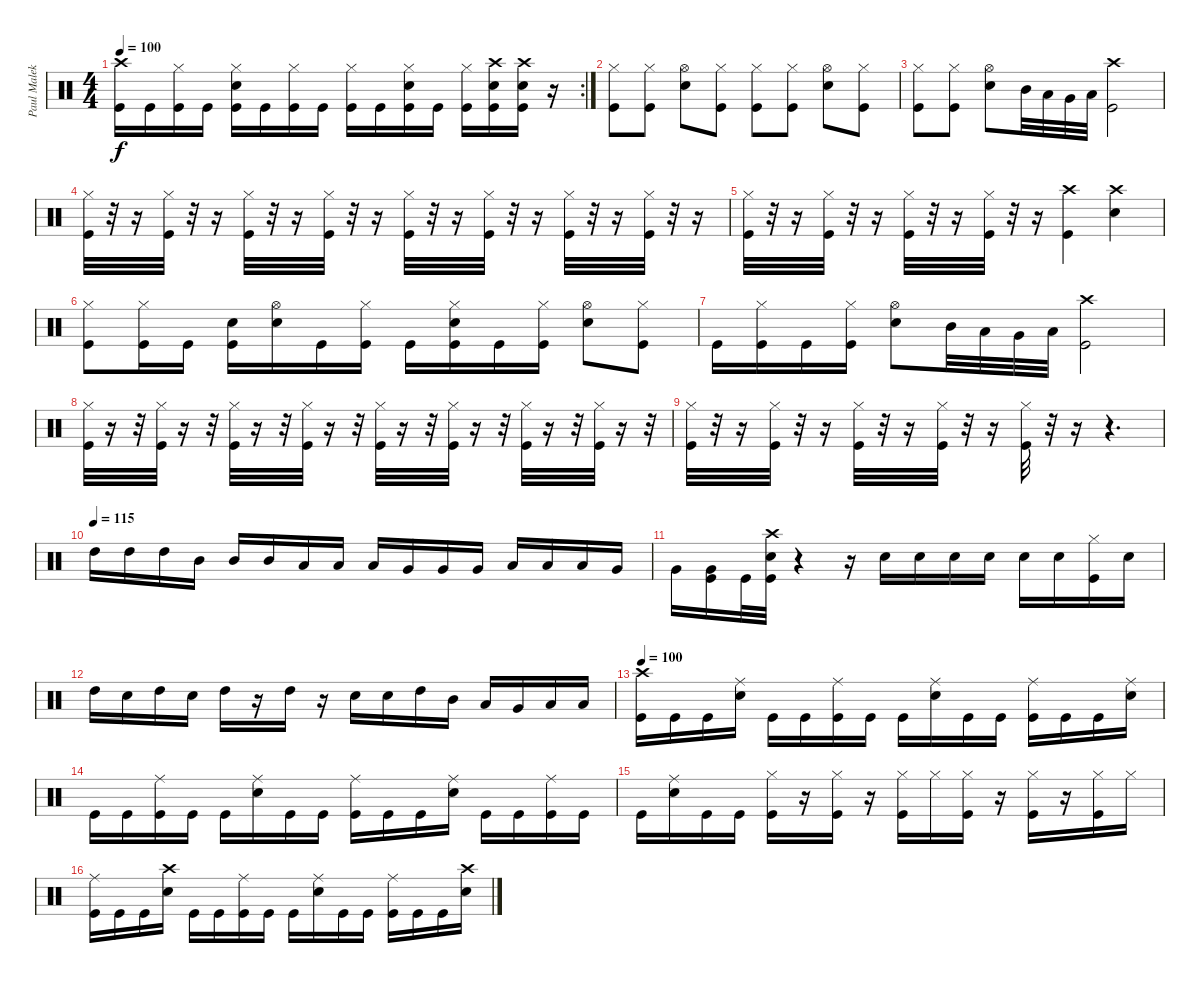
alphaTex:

\track ("Paul Malek" "Paul Malek") {instrument percussion}
\staff {score}
\articulation defaults
\rc 2
\ts (4 4)
\tempo 100
\clef neutral
\ks c
("Crash high (hit)" "Kick (hit)").16{dy f} "Kick (hit)".16 ("Hi-Hat (closed)" "Kick (hit)").16 "Kick (hit)".16 ("Hi-Hat (closed)" "Snare (hit) 2" "Kick (hit)").16 "Kick (hit)".16 ("Hi-Hat (closed)" "Kick (hit)").16 "Kick (hit)".16 ("Hi-Hat (closed)" "Kick (hit)").16 "Kick (hit)".16 ("Hi-Hat (closed)" "Snare (hit) 2" "Kick (hit)").16 "Kick (hit)".16 ("Hi-Hat (closed)" "Kick (hit)").16 ("Snare (hit) 2" "Crash high (hit)" "Kick (hit)").16 ("Snare (hit) 2" "Crash high (hit)" "Kick (hit)").16 r.16 |
("Hi-Hat (closed)" "Kick (hit)").8 ("Hi-Hat (closed)" "Kick (hit)").8 ("Hi-Hat (open)" "Snare (hit) 2").8 ("Hi-Hat (closed)" "Kick (hit)").8 ("Hi-Hat (closed)" "Kick (hit)").8 ("Hi-Hat (closed)" "Kick (hit)").8 ("Hi-Hat (open)" "Snare (hit) 2").8 ("Hi-Hat (closed)" "Kick (hit)").8 |
("Hi-Hat (closed)" "Kick (hit)").8 ("Hi-Hat (closed)" "Kick (hit)").8 ("Hi-Hat (open)" "Snare (hit) 2").8 "Mid Tom (hit)".32 "Low Tom (hit)".32 "Very Low Tom (hit)".32 "Low Floor Tom (hit)".32 ("Crash high (hit)" "Kick (hit)").2 |
("Hi-Hat (closed)" "Kick (hit)").32 r.32 r.16 ("Hi-Hat (closed)" "Kick (hit)").32 r.32 r.16 ("Hi-Hat (closed)" "Kick (hit)").32 r.32 r.16 ("Hi-Hat (closed)" "Kick (hit)").32 r.32 r.16 ("Hi-Hat (closed)" "Kick (hit)").32 r.32 r.16 ("Hi-Hat (closed)" "Kick (hit)").32 r.32 r.16 ("Hi-Hat (closed)" "Kick (hit)").32 r.32 r.16 ("Hi-Hat (closed)" "Kick (hit)").32 r.32 r.16 |
("Hi-Hat (closed)" "Kick (hit)").32 r.32 r.16 ("Hi-Hat (closed)" "Kick (hit)").32 r.32 r.16 ("Hi-Hat (closed)" "Kick (hit)").32 r.32 r.16 ("Hi-Hat (closed)" "Kick (hit)").32 r.32 r.16 ("Crash high (hit)" "Kick (hit)").4 ("Snare (hit) 2" "Crash high (hit)").4 |
("Hi-Hat (closed)" "Kick (hit)").8 ("Hi-Hat (closed)" "Kick (hit)").16 "Kick (hit)".16 ("Snare (hit) 2" "Kick (hit)").16 ("Hi-Hat (open)" "Snare (hit) 2").16 "Kick (hit)".16 ("Hi-Hat (closed)" "Kick (hit)").16 "Kick (hit)".16 ("Hi-Hat (closed)" "Snare (hit) 2" "Kick (hit)").16 "Kick (hit)".16 ("Hi-Hat (closed)" "Kick (hit)").16 ("Hi-Hat (open)" "Snare (hit) 2").8 ("Hi-Hat (closed)" "Kick (hit)").8 |
"Kick (hit)".16 ("Hi-Hat (closed)" "Kick (hit)").16 "Kick (hit)".16 ("Hi-Hat (closed)" "Kick (hit)").16 ("Hi-Hat (open)" "Snare (hit) 2").8 "Mid Tom (hit)".32 "Low Tom (hit)".32 "Very Low Tom (hit)".32 "Low Floor Tom (hit)".32 ("Crash high (hit)" "Kick (hit)").2 |
("Hi-Hat (closed)" "Kick (hit)").32 r.16 r.32 ("Hi-Hat (closed)" "Kick (hit)").32 r.16 r.32 ("Hi-Hat (closed)" "Kick (hit)").32 r.16 r.32 ("Hi-Hat (closed)" "Kick (hit)").32 r.16 r.32 ("Hi-Hat (closed)" "Kick (hit)").32 r.16 r.32 ("Hi-Hat (closed)" "Kick (hit)").32 r.16 r.32 ("Hi-Hat (closed)" "Kick (hit)").32 r.16 r.32 ("Hi-Hat (closed)" "Kick (hit)").32 r.16 r.32 |
("Hi-Hat (closed)" "Kick (hit)").32 r.32 r.16 ("Hi-Hat (closed)" "Kick (hit)").32 r.32 r.16 ("Hi-Hat (closed)" "Kick (hit)").32 r.32 r.16 ("Hi-Hat (closed)" "Kick (hit)").32 r.32 r.16 ("Hi-Hat (closed)" "Kick (hit)").32 r.32 r.16 r.4{d} |
\tempo (115)
"High Tom (hit)".16 "High Tom (hit)".16 "High Tom (hit)".16 "Mid Tom (hit)".16 "Mid Tom (hit)".16 "Mid Tom (hit)".16 "Low Tom (hit)".16 "Low Tom (hit)".16 "Low Tom (hit)".16 "Very Low Tom (hit)".16 "Very Low Tom (hit)".16 "Very Low Tom (hit)".16 "Low Floor Tom (hit)".16 "Low Floor Tom (hit)".16 "Low Floor Tom (hit)".16 "Very Low Tom (hit)".16 |
"Very Low Tom (hit)".16 ("Very Low Tom (hit)" "Kick (hit)").16 "Kick (hit)".32 ("Snare (hit) 2" "Crash high (hit)" "Kick (hit)").32 r.4 r.16 "Snare (hit) 2".16 "Snare (hit) 2".16 "Snare (hit) 2".16 "Electric Snare (hit)".16 "Electric Snare (hit)".16 "Electric Snare (hit)".16 ("Hi-Hat (closed)" "Kick (hit)").16 "Electric Snare (hit)".16 |
"High Tom (hit)".16 "Electric Snare (hit)".16 "High Tom (hit)".16 "Electric Snare (hit)".16 "High Tom (hit)".16 r.16 "High Tom (hit)".16 r.16 "Electric Snare (hit)".16 "Electric Snare (hit)".16 "High Tom (hit)".16 "Mid Tom (hit)".16 "Low Tom (hit)".16 "Very Low Tom (hit)".16 "Low Floor Tom (hit)".16 "Low Floor Tom (hit)".16 |
\tempo 100
("Crash high (hit)" "Kick (hit)").16 "Kick (hit)".16 "Kick (hit)".16 ("Ride (middle)" "Snare (hit) 2").16 "Kick (hit)".16 "Kick (hit)".16 ("Ride (middle)" "Kick (hit)").16 "Kick (hit)".16 "Kick (hit)".16 ("Ride (middle)" "Snare (hit) 2").16 "Kick (hit)".16 "Kick (hit)".16 ("Ride (middle)" "Kick (hit)").16 "Kick (hit)".16 "Kick (hit)".16 ("Ride (middle)" "Snare (hit) 2").16 |
"Kick (hit)".16 "Kick (hit)".16 ("Ride (middle)" "Kick (hit)").16 "Kick (hit)".16 "Kick (hit)".16 ("Ride (middle)" "Snare (hit) 2").16 "Kick (hit)".16 "Kick (hit)".16 ("Ride (middle)" "Kick (hit)").16 "Kick (hit)".16 "Kick (hit)".16 ("Ride (middle)" "Snare (hit) 2").16 "Kick (hit)".16 "Kick (hit)".16 ("Ride (middle)" "Kick (hit)").16 "Kick (hit)".16 |
"Kick (hit)".16 ("Ride (middle)" "Snare (hit) 2").16 "Kick (hit)".16 "Kick (hit)".16 ("Hi-Hat (closed)" "Kick (hit)").16 r.16 ("Hi-Hat (closed)" "Kick (hit)").16 r.16 ("Hi-Hat (closed)" "Kick (hit)").16 "Hi-Hat (closed)".16 ("Hi-Hat (closed)" "Kick (hit)").16 r.16 ("Hi-Hat (closed)" "Kick (hit)").16 r.16 ("Hi-Hat (closed)" "Kick (hit)").16 "Hi-Hat (closed)".16 |
("Ride (middle)" "Kick (hit)").16 "Kick (hit)".16 "Kick (hit)".16 ("Snare (hit) 2" "Crash high (hit)").16 "Kick (hit)".16 "Kick (hit)".16 ("Ride (middle)" "Kick (hit)").16 "Kick (hit)".16 "Kick (hit)".16 ("Ride (middle)" "Snare (hit) 2").16 "Kick (hit)".16 "Kick (hit)".16 ("Ride (middle)" "Kick (hit)").16 "Kick (hit)".16 "Kick (hit)".16 ("Snare (hit) 2" "Crash high (hit)").16
